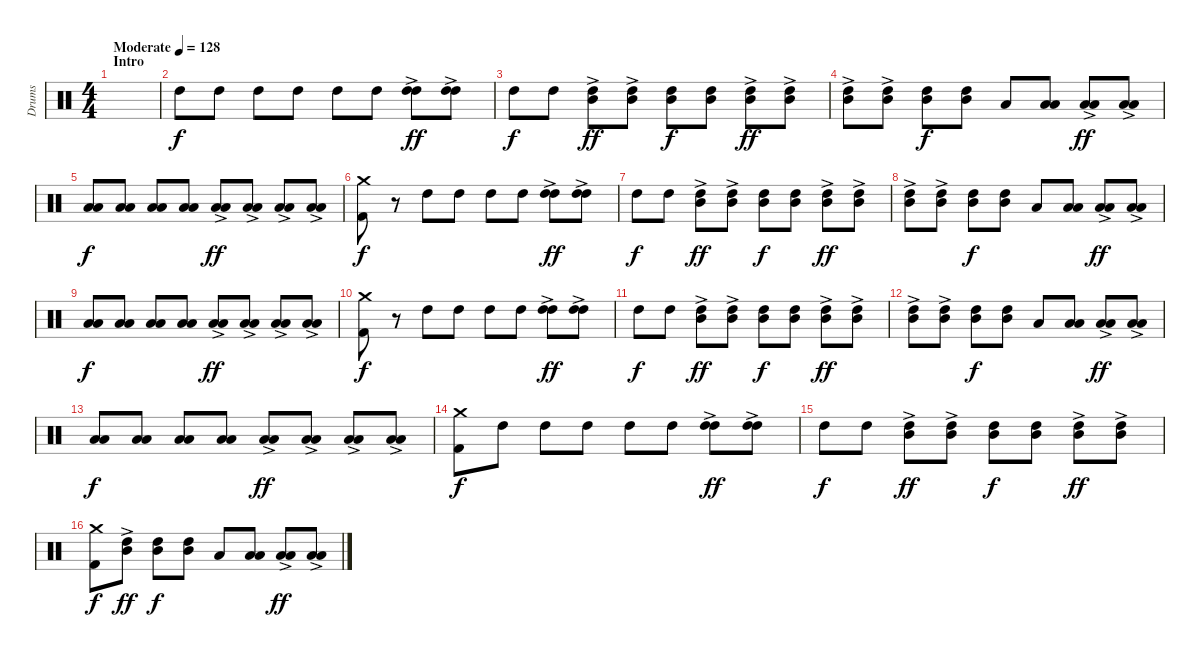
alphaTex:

\track ("Drums" "Drums") {instrument percussion}
\staff {score}
\articulation defaults
\ts (4 4)
\section ("" "Intro")
\tempo (128 "Moderate")
\clef neutral
\ks c
|
"High Tom (hit)".8{volume 13 balance 13} "High Tom (hit)".8 "High Tom (hit)".8 "High Tom (hit)".8 "High Tom (hit)".8 "High Tom (hit)".8 ("High Tom (hit)"{ac} "High Tom (hit)"{ac}).8{dy ff volume 16} ("High Tom (hit)"{ac} "High Tom (hit)"{ac}).8 |
"High Tom (hit)".8{dy f volume 13 balance 11} "High Tom (hit)".8 ("High Tom (hit)"{ac} "Mid Tom (hit)"{ac}).8{dy ff volume 16} ("High Tom (hit)"{ac} "Mid Tom (hit)"{ac}).8 ("High Tom (hit)" "Mid Tom (hit)").8{dy f volume 13} ("High Tom (hit)" "Mid Tom (hit)").8 ("High Tom (hit)"{ac} "Mid Tom (hit)"{ac}).8{dy ff volume 16} ("High Tom (hit)"{ac} "Mid Tom (hit)"{ac}).8 |
("High Tom (hit)"{ac} "Mid Tom (hit)"{ac}).8 ("High Tom (hit)"{ac} "Mid Tom (hit)"{ac}).8 ("High Tom (hit)" "Mid Tom (hit)").8{dy f volume 13 balance 6} ("High Tom (hit)" "Mid Tom (hit)").8 "Low Tom (hit)".8 ("Low Tom (hit)" "Low Tom (hit)").8 ("Low Tom (hit)"{ac} "Low Tom (hit)"{ac}).8{dy ff volume 16} ("Low Tom (hit)"{ac} "Low Tom (hit)"{ac}).8 |
("Low Tom (hit)" "Low Floor Tom (hit)").8{dy f volume 13 balance 4} ("Low Tom (hit)" "Low Floor Tom (hit)").8 ("Low Tom (hit)" "Low Floor Tom (hit)").8 ("Low Tom (hit)" "Low Floor Tom (hit)").8 ("Low Floor Tom (hit)"{ac} "Low Floor Tom (hit)"{ac}).8{dy ff volume 16} ("Low Floor Tom (hit)"{ac} "Low Floor Tom (hit)"{ac}).8 ("Low Floor Tom (hit)"{ac} "Low Floor Tom (hit)"{ac}).8 ("Low Floor Tom (hit)"{ac} "Low Floor Tom (hit)"{ac}).8 |
("Crash medium (hit)" "Kick (hit) 2").8{dy f balance 8} r.8 "High Tom (hit)".8{volume 13 balance 12} "High Tom (hit)".8 "High Tom (hit)".8 "High Tom (hit)".8 ("High Tom (hit)"{ac} "High Tom (hit)"{ac}).8{dy ff volume 16} ("High Tom (hit)"{ac} "High Tom (hit)"{ac}).8 |
"High Tom (hit)".8{dy f volume 13 balance 11} "High Tom (hit)".8 ("High Tom (hit)"{ac} "Mid Tom (hit)"{ac}).8{dy ff volume 16} ("High Tom (hit)"{ac} "Mid Tom (hit)"{ac}).8 ("High Tom (hit)" "Mid Tom (hit)").8{dy f volume 13} ("High Tom (hit)" "Mid Tom (hit)").8 ("High Tom (hit)"{ac} "Mid Tom (hit)"{ac}).8{dy ff volume 16} ("High Tom (hit)"{ac} "Mid Tom (hit)"{ac}).8 |
("High Tom (hit)"{ac} "Mid Tom (hit)"{ac}).8 ("High Tom (hit)"{ac} "Mid Tom (hit)"{ac}).8 ("High Tom (hit)" "Mid Tom (hit)").8{dy f volume 13 balance 6} ("High Tom (hit)" "Mid Tom (hit)").8 "Low Tom (hit)".8 ("Low Tom (hit)" "Low Tom (hit)").8 ("Low Tom (hit)"{ac} "Low Tom (hit)"{ac}).8{dy ff volume 16} ("Low Tom (hit)"{ac} "Low Tom (hit)"{ac}).8 |
("Low Tom (hit)" "Low Floor Tom (hit)").8{dy f volume 13 balance 4} ("Low Tom (hit)" "Low Floor Tom (hit)").8 ("Low Tom (hit)" "Low Floor Tom (hit)").8 ("Low Tom (hit)" "Low Floor Tom (hit)").8 ("Low Floor Tom (hit)"{ac} "Low Floor Tom (hit)"{ac}).8{dy ff volume 16} ("Low Floor Tom (hit)"{ac} "Low Floor Tom (hit)"{ac}).8 ("Low Floor Tom (hit)"{ac} "Low Floor Tom (hit)"{ac}).8 ("Low Floor Tom (hit)"{ac} "Low Floor Tom (hit)"{ac}).8 |
("Crash medium (hit)" "Kick (hit) 2").8{dy f balance 8} r.8 "High Tom (hit)".8{volume 13 balance 12} "High Tom (hit)".8 "High Tom (hit)".8 "High Tom (hit)".8 ("High Tom (hit)"{ac} "High Tom (hit)"{ac}).8{dy ff volume 16} ("High Tom (hit)"{ac} "High Tom (hit)"{ac}).8 |
"High Tom (hit)".8{dy f volume 13 balance 11} "High Tom (hit)".8 ("High Tom (hit)"{ac} "Mid Tom (hit)"{ac}).8{dy ff volume 16} ("High Tom (hit)"{ac} "Mid Tom (hit)"{ac}).8 ("High Tom (hit)" "Mid Tom (hit)").8{dy f volume 13} ("High Tom (hit)" "Mid Tom (hit)").8 ("High Tom (hit)"{ac} "Mid Tom (hit)"{ac}).8{dy ff volume 16} ("High Tom (hit)"{ac} "Mid Tom (hit)"{ac}).8 |
("High Tom (hit)"{ac} "Mid Tom (hit)"{ac}).8 ("High Tom (hit)"{ac} "Mid Tom (hit)"{ac}).8 ("High Tom (hit)" "Mid Tom (hit)").8{dy f volume 13 balance 6} ("High Tom (hit)" "Mid Tom (hit)").8 "Low Tom (hit)".8 ("Low Tom (hit)" "Low Tom (hit)").8 ("Low Tom (hit)"{ac} "Low Tom (hit)"{ac}).8{dy ff volume 16} ("Low Tom (hit)"{ac} "Low Tom (hit)"{ac}).8 |
("Low Tom (hit)" "Low Floor Tom (hit)").8{dy f volume 13 balance 4} ("Low Tom (hit)" "Low Floor Tom (hit)").8 ("Low Tom (hit)" "Low Floor Tom (hit)").8 ("Low Tom (hit)" "Low Floor Tom (hit)").8 ("Low Floor Tom (hit)"{ac} "Low Floor Tom (hit)"{ac}).8{dy ff volume 16} ("Low Floor Tom (hit)"{ac} "Low Floor Tom (hit)"{ac}).8 ("Low Floor Tom (hit)"{ac} "Low Floor Tom (hit)"{ac}).8 ("Low Floor Tom (hit)"{ac} "Low Floor Tom (hit)"{ac}).8 |
("Crash medium (hit)" "Kick (hit) 2").8{dy f balance 8} "High Tom (hit)".8{volume 13 balance 12} "High Tom (hit)".8 "High Tom (hit)".8 "High Tom (hit)".8 "High Tom (hit)".8 ("High Tom (hit)"{ac} "High Tom (hit)"{ac}).8{dy ff volume 16} ("High Tom (hit)"{ac} "High Tom (hit)"{ac}).8 |
"High Tom (hit)".8{dy f volume 13 balance 11} "High Tom (hit)".8 ("High Tom (hit)"{ac} "Mid Tom (hit)"{ac}).8{dy ff volume 16} ("High Tom (hit)"{ac} "Mid Tom (hit)"{ac}).8 ("High Tom (hit)" "Mid Tom (hit)").8{dy f volume 13} ("High Tom (hit)" "Mid Tom (hit)").8 ("High Tom (hit)"{ac} "Mid Tom (hit)"{ac}).8{dy ff volume 16} ("High Tom (hit)"{ac} "Mid Tom (hit)"{ac}).8 |
("Crash medium (hit)" "Kick (hit) 2").8{dy f} ("High Tom (hit)"{ac} "Mid Tom (hit)"{ac}).8{dy ff} ("High Tom (hit)" "Mid Tom (hit)").8{dy f volume 13 balance 6} ("High Tom (hit)" "Mid Tom (hit)").8 "Low Tom (hit)".8 ("Low Tom (hit)" "Low Tom (hit)").8 ("Low Tom (hit)"{ac} "Low Tom (hit)"{ac}).8{dy ff volume 16} ("Low Tom (hit)"{ac} "Low Tom (hit)"{ac}).8
